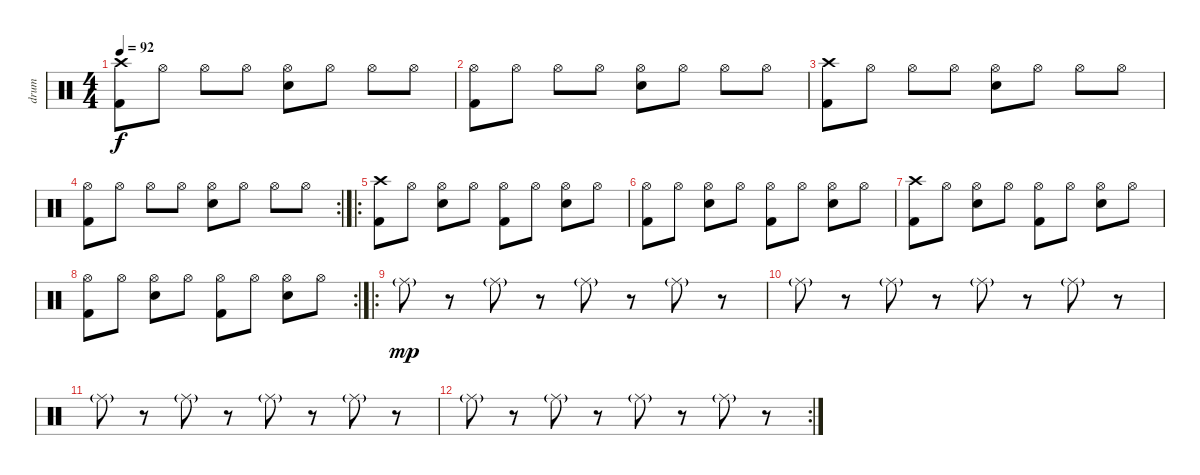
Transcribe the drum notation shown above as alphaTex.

\track ("drum" "drum") {instrument percussion}
\staff {score}
\articulation defaults
\ts (4 4)
\tempo 92
\clef neutral
\ks c
("Crash high (hit)" "Kick (hit) 2").8{dy f} "Hi-Hat (open)".8 "Hi-Hat (open)".8 "Hi-Hat (open)".8 ("Hi-Hat (open)" "Electric Snare (hit)").8 "Hi-Hat (open)".8 "Hi-Hat (open)".8 "Hi-Hat (open)".8 |
("Hi-Hat (open)" "Kick (hit) 2").8 "Hi-Hat (open)".8 "Hi-Hat (open)".8 "Hi-Hat (open)".8 ("Hi-Hat (open)" "Electric Snare (hit)").8 "Hi-Hat (open)".8 "Hi-Hat (open)".8 "Hi-Hat (open)".8 |
("Crash high (hit)" "Kick (hit) 2").8 "Hi-Hat (open)".8 "Hi-Hat (open)".8 "Hi-Hat (open)".8 ("Hi-Hat (open)" "Electric Snare (hit)").8 "Hi-Hat (open)".8 "Hi-Hat (open)".8 "Hi-Hat (open)".8 |
\rc 2
("Hi-Hat (open)" "Kick (hit) 2").8 "Hi-Hat (open)".8 "Hi-Hat (open)".8 "Hi-Hat (open)".8 ("Hi-Hat (open)" "Electric Snare (hit)").8 "Hi-Hat (open)".8 "Hi-Hat (open)".8 "Hi-Hat (open)".8 |
\ro
("Crash high (hit)" "Kick (hit) 2").8 "Hi-Hat (open)".8 ("Hi-Hat (open)" "Electric Snare (hit)").8 "Hi-Hat (open)".8 ("Hi-Hat (open)" "Kick (hit) 2").8 "Hi-Hat (open)".8 ("Hi-Hat (open)" "Electric Snare (hit)").8 "Hi-Hat (open)".8 |
("Hi-Hat (open)" "Kick (hit) 2").8 "Hi-Hat (open)".8 ("Hi-Hat (open)" "Electric Snare (hit)").8 "Hi-Hat (open)".8 ("Hi-Hat (open)" "Kick (hit) 2").8 "Hi-Hat (open)".8 ("Hi-Hat (open)" "Electric Snare (hit)").8 "Hi-Hat (open)".8 |
("Crash high (hit)" "Kick (hit) 2").8 "Hi-Hat (open)".8 ("Hi-Hat (open)" "Electric Snare (hit)").8 "Hi-Hat (open)".8 ("Hi-Hat (open)" "Kick (hit) 2").8 "Hi-Hat (open)".8 ("Hi-Hat (open)" "Electric Snare (hit)").8 "Hi-Hat (open)".8 |
\rc 2
("Hi-Hat (open)" "Kick (hit) 2").8 "Hi-Hat (open)".8 ("Hi-Hat (open)" "Electric Snare (hit)").8 "Hi-Hat (open)".8 ("Hi-Hat (open)" "Kick (hit) 2").8 "Hi-Hat (open)".8 ("Hi-Hat (open)" "Electric Snare (hit)").8 "Hi-Hat (open)".8 |
\ro "Ride (middle)"{g}.8{dy mp}
r.8 "Ride (middle)"{g}.8 r.8 "Ride (middle)"{g}.8 r.8 "Ride (middle)"{g}.8 r.8 |
"Ride (middle)"{g}.8 r.8 "Ride (middle)"{g}.8 r.8 "Ride (middle)"{g}.8 r.8 "Ride (middle)"{g}.8 r.8 |
"Ride (middle)"{g}.8 r.8 "Ride (middle)"{g}.8 r.8 "Ride (middle)"{g}.8 r.8 "Ride (middle)"{g}.8 r.8 |
\rc 2 "Ride (middle)"{g}.8
r.8 "Ride (middle)"{g}.8 r.8 "Ride (middle)"{g}.8 r.8 "Ride (middle)"{g}.8 r.8
